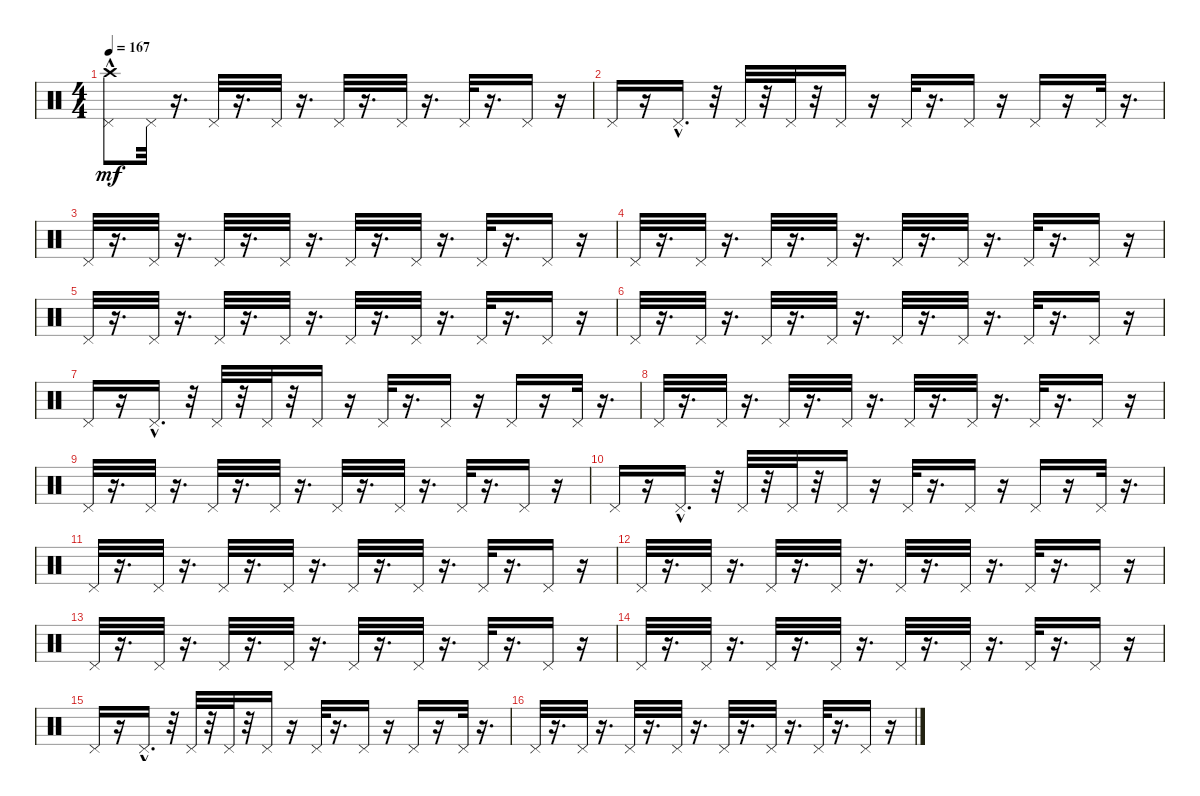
\track "" {instrument percussion}
\staff {score}
\articulation defaults
\ts (4 4)
\tempo 167
\clef neutral
\ks c
("Crash high (hit)"{hac} "Pedal Hi-Hat (hit)").8{dy mf} "Pedal Hi-Hat (hit)".32 r.16{d} "Pedal Hi-Hat (hit)".32 r.16{d} "Pedal Hi-Hat (hit)".32 r.16{d} "Pedal Hi-Hat (hit)".32 r.16{d} "Pedal Hi-Hat (hit)".32 r.16{d} "Pedal Hi-Hat (hit)".32 r.16{d} "Pedal Hi-Hat (hit)".16 r.16 |
"Pedal Hi-Hat (hit)".16 r.16 "Pedal Hi-Hat (hit)"{hac}.16{d} r.32 "Pedal Hi-Hat (hit)".32 r.32 "Pedal Hi-Hat (hit)".32 r.32 "Pedal Hi-Hat (hit)".16 r.16 "Pedal Hi-Hat (hit)".32 r.16{d} "Pedal Hi-Hat (hit)".16 r.16 "Pedal Hi-Hat (hit)".16 r.16 "Pedal Hi-Hat (hit)".32 r.16{d} |
"Pedal Hi-Hat (hit)".32 r.16{d} "Pedal Hi-Hat (hit)".32 r.16{d} "Pedal Hi-Hat (hit)".32 r.16{d} "Pedal Hi-Hat (hit)".32 r.16{d} "Pedal Hi-Hat (hit)".32 r.16{d} "Pedal Hi-Hat (hit)".32 r.16{d} "Pedal Hi-Hat (hit)".32 r.16{d} "Pedal Hi-Hat (hit)".16 r.16 |
"Pedal Hi-Hat (hit)".32 r.16{d} "Pedal Hi-Hat (hit)".32 r.16{d} "Pedal Hi-Hat (hit)".32 r.16{d} "Pedal Hi-Hat (hit)".32 r.16{d} "Pedal Hi-Hat (hit)".32 r.16{d} "Pedal Hi-Hat (hit)".32 r.16{d} "Pedal Hi-Hat (hit)".32 r.16{d} "Pedal Hi-Hat (hit)".16 r.16 |
"Pedal Hi-Hat (hit)".32 r.16{d} "Pedal Hi-Hat (hit)".32 r.16{d} "Pedal Hi-Hat (hit)".32 r.16{d} "Pedal Hi-Hat (hit)".32 r.16{d} "Pedal Hi-Hat (hit)".32 r.16{d} "Pedal Hi-Hat (hit)".32 r.16{d} "Pedal Hi-Hat (hit)".32 r.16{d} "Pedal Hi-Hat (hit)".16 r.16 |
"Pedal Hi-Hat (hit)".32 r.16{d} "Pedal Hi-Hat (hit)".32 r.16{d} "Pedal Hi-Hat (hit)".32 r.16{d} "Pedal Hi-Hat (hit)".32 r.16{d} "Pedal Hi-Hat (hit)".32 r.16{d} "Pedal Hi-Hat (hit)".32 r.16{d} "Pedal Hi-Hat (hit)".32 r.16{d} "Pedal Hi-Hat (hit)".16 r.16 |
"Pedal Hi-Hat (hit)".16 r.16 "Pedal Hi-Hat (hit)"{hac}.16{d} r.32 "Pedal Hi-Hat (hit)".32 r.32 "Pedal Hi-Hat (hit)".32 r.32 "Pedal Hi-Hat (hit)".16 r.16 "Pedal Hi-Hat (hit)".32 r.16{d} "Pedal Hi-Hat (hit)".16 r.16 "Pedal Hi-Hat (hit)".16 r.16 "Pedal Hi-Hat (hit)".32 r.16{d} |
"Pedal Hi-Hat (hit)".32 r.16{d} "Pedal Hi-Hat (hit)".32 r.16{d} "Pedal Hi-Hat (hit)".32 r.16{d} "Pedal Hi-Hat (hit)".32 r.16{d} "Pedal Hi-Hat (hit)".32 r.16{d} "Pedal Hi-Hat (hit)".32 r.16{d} "Pedal Hi-Hat (hit)".32 r.16{d} "Pedal Hi-Hat (hit)".16 r.16 |
"Pedal Hi-Hat (hit)".32 r.16{d} "Pedal Hi-Hat (hit)".32 r.16{d} "Pedal Hi-Hat (hit)".32 r.16{d} "Pedal Hi-Hat (hit)".32 r.16{d} "Pedal Hi-Hat (hit)".32 r.16{d} "Pedal Hi-Hat (hit)".32 r.16{d} "Pedal Hi-Hat (hit)".32 r.16{d} "Pedal Hi-Hat (hit)".16 r.16 |
"Pedal Hi-Hat (hit)".16 r.16 "Pedal Hi-Hat (hit)"{hac}.16{d} r.32 "Pedal Hi-Hat (hit)".32 r.32 "Pedal Hi-Hat (hit)".32 r.32 "Pedal Hi-Hat (hit)".16 r.16 "Pedal Hi-Hat (hit)".32 r.16{d} "Pedal Hi-Hat (hit)".16 r.16 "Pedal Hi-Hat (hit)".16 r.16 "Pedal Hi-Hat (hit)".32 r.16{d} |
"Pedal Hi-Hat (hit)".32 r.16{d} "Pedal Hi-Hat (hit)".32 r.16{d} "Pedal Hi-Hat (hit)".32 r.16{d} "Pedal Hi-Hat (hit)".32 r.16{d} "Pedal Hi-Hat (hit)".32 r.16{d} "Pedal Hi-Hat (hit)".32 r.16{d} "Pedal Hi-Hat (hit)".32 r.16{d} "Pedal Hi-Hat (hit)".16 r.16 |
"Pedal Hi-Hat (hit)".32 r.16{d} "Pedal Hi-Hat (hit)".32 r.16{d} "Pedal Hi-Hat (hit)".32 r.16{d} "Pedal Hi-Hat (hit)".32 r.16{d} "Pedal Hi-Hat (hit)".32 r.16{d} "Pedal Hi-Hat (hit)".32 r.16{d} "Pedal Hi-Hat (hit)".32 r.16{d} "Pedal Hi-Hat (hit)".16 r.16 |
"Pedal Hi-Hat (hit)".32 r.16{d} "Pedal Hi-Hat (hit)".32 r.16{d} "Pedal Hi-Hat (hit)".32 r.16{d} "Pedal Hi-Hat (hit)".32 r.16{d} "Pedal Hi-Hat (hit)".32 r.16{d} "Pedal Hi-Hat (hit)".32 r.16{d} "Pedal Hi-Hat (hit)".32 r.16{d} "Pedal Hi-Hat (hit)".16 r.16 |
"Pedal Hi-Hat (hit)".32 r.16{d} "Pedal Hi-Hat (hit)".32 r.16{d} "Pedal Hi-Hat (hit)".32 r.16{d} "Pedal Hi-Hat (hit)".32 r.16{d} "Pedal Hi-Hat (hit)".32 r.16{d} "Pedal Hi-Hat (hit)".32 r.16{d} "Pedal Hi-Hat (hit)".32 r.16{d} "Pedal Hi-Hat (hit)".16 r.16 |
"Pedal Hi-Hat (hit)".16 r.16 "Pedal Hi-Hat (hit)"{hac}.16{d} r.32 "Pedal Hi-Hat (hit)".32 r.32 "Pedal Hi-Hat (hit)".32 r.32 "Pedal Hi-Hat (hit)".16 r.16 "Pedal Hi-Hat (hit)".32 r.16{d} "Pedal Hi-Hat (hit)".16 r.16 "Pedal Hi-Hat (hit)".16 r.16 "Pedal Hi-Hat (hit)".32 r.16{d} |
"Pedal Hi-Hat (hit)".32 r.16{d} "Pedal Hi-Hat (hit)".32 r.16{d} "Pedal Hi-Hat (hit)".32 r.16{d} "Pedal Hi-Hat (hit)".32 r.16{d} "Pedal Hi-Hat (hit)".32 r.16{d} "Pedal Hi-Hat (hit)".32 r.16{d} "Pedal Hi-Hat (hit)".32 r.16{d} "Pedal Hi-Hat (hit)".16 r.16
